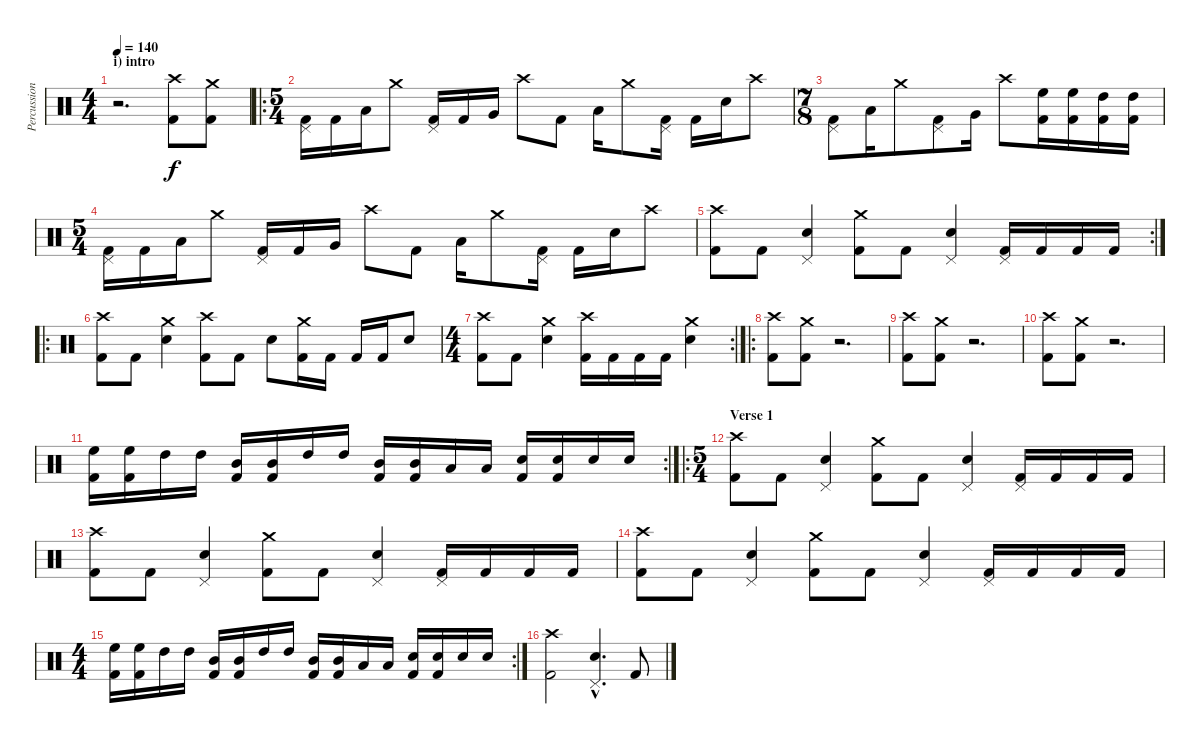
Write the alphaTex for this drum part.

\track ("Percussion" "Percussion") {instrument percussion}
\staff {score}
\articulation defaults
\ts (4 4)
\section ("" "i) intro")
\tempo 140
\clef neutral
\ks c
r.2{d dy f} ("Crash high (hit)" "Kick (hit) 2").8 ("Crash medium (hit)" "Kick (hit) 2").8 |
\ro
\ts (5 4)
("Pedal Hi-Hat (hit)" "Kick (hit) 2").16 "Kick (hit) 2".16 "Low Floor Tom (hit)".16 "Crash medium (hit)".8 ("Pedal Hi-Hat (hit)" "Kick (hit) 2").16 "Kick (hit) 2".16 "Very Low Tom (hit)".16 "Crash high (hit)".8 "Kick (hit) 2".8 "Low Floor Tom (hit)".16 "Crash medium (hit)".8 ("Pedal Hi-Hat (hit)" "Kick (hit) 2").16 "Kick (hit) 2".16 "Electric Snare (hit)".16 "Crash high (hit)".8 |
\ts (7 8)
("Pedal Hi-Hat (hit)" "Kick (hit) 2").8 "Low Floor Tom (hit)".16 "Crash medium (hit)".8 ("Pedal Hi-Hat (hit)" "Kick (hit) 2").8 "Very Low Tom (hit)".16 "Crash high (hit)".8 ("High Floor Tom (hit)" "Kick (hit) 2").16 ("High Floor Tom (hit)" "Kick (hit) 2").16 ("High Tom (hit)" "Kick (hit) 2").16 ("High Tom (hit)" "Kick (hit) 2").16 |
\ts (5 4)
("Pedal Hi-Hat (hit)" "Kick (hit) 2").16 "Kick (hit) 2".16 "Low Floor Tom (hit)".16 "Crash medium (hit)".8 ("Pedal Hi-Hat (hit)" "Kick (hit) 2").16 "Kick (hit) 2".16 "Very Low Tom (hit)".16 "Crash high (hit)".8 "Kick (hit) 2".8 "Low Floor Tom (hit)".16 "Crash medium (hit)".8 ("Pedal Hi-Hat (hit)" "Kick (hit) 2").16 "Kick (hit) 2".16 "Electric Snare (hit)".16 "Crash high (hit)".8 |
\rc 2
("Crash high (hit)" "Kick (hit) 2").8 "Kick (hit) 2".8 ("Pedal Hi-Hat (hit)" "Snare (hit) 2").4 ("Crash medium (hit)" "Kick (hit) 2").8 "Kick (hit) 2".8 ("Pedal Hi-Hat (hit)" "Snare (hit) 2").4 ("Pedal Hi-Hat (hit)" "Kick (hit) 2").16 "Kick (hit) 2".16 "Kick (hit) 2".16 "Kick (hit) 2".16 |
\ro
("Crash high (hit)" "Kick (hit) 2").8 "Kick (hit) 2".8 ("Crash medium (hit)" "Snare (hit) 2").4 ("Crash high (hit)" "Kick (hit) 2").8 "Kick (hit) 2".8 "Snare (hit) 2".8 ("Crash medium (hit)" "Kick (hit) 2").16 "Kick (hit) 2".16 "Kick (hit) 2".16 "Kick (hit) 2".16 "Snare (hit) 2".8 |
\rc 2
\ts (4 4)
("Crash high (hit)" "Kick (hit) 2").8 "Kick (hit) 2".8 ("Crash medium (hit)" "Snare (hit) 2").4 ("Crash high (hit)" "Kick (hit) 2").16 "Kick (hit) 2".16 "Kick (hit) 2".16 "Kick (hit) 2".16 ("Crash medium (hit)" "Snare (hit) 2").4 |
\ro
("Crash high (hit)" "Kick (hit) 2").8 ("Crash medium (hit)" "Kick (hit) 2").8 r.2{d} |
("Crash high (hit)" "Kick (hit) 2").8 ("Crash medium (hit)" "Kick (hit) 2").8 r.2{d} |
("Crash high (hit)" "Kick (hit) 2").8 ("Crash medium (hit)" "Kick (hit) 2").8 r.2{d} |
\rc 2
("High Floor Tom (hit)" "Kick (hit) 2").16 ("High Floor Tom (hit)" "Kick (hit) 2").16 "High Tom (hit)".16 "High Tom (hit)".16 ("Mid Tom (hit)" "Kick (hit) 2").16 ("Mid Tom (hit)" "Kick (hit) 2").16 "High Tom (hit)".16 "High Tom (hit)".16 ("Mid Tom (hit)" "Kick (hit) 2").16 ("Mid Tom (hit)" "Kick (hit) 2").16 "Low Tom (hit)".16 "Low Tom (hit)".16 ("Snare (hit) 2" "Kick (hit) 2").16 ("Snare (hit) 2" "Kick (hit) 2").16 "Electric Snare (hit)".16 "Electric Snare (hit)".16 |
\ro
\ts (5 4)
\section ("" "Verse 1")
("Crash high (hit)" "Kick (hit) 2").8 "Kick (hit) 2".8 ("Pedal Hi-Hat (hit)" "Snare (hit) 2").4 ("Crash medium (hit)" "Kick (hit) 2").8 "Kick (hit) 2".8 ("Pedal Hi-Hat (hit)" "Snare (hit) 2").4 ("Pedal Hi-Hat (hit)" "Kick (hit) 2").16 "Kick (hit) 2".16 "Kick (hit) 2".16 "Kick (hit) 2".16 |
("Crash high (hit)" "Kick (hit) 2").8 "Kick (hit) 2".8 ("Pedal Hi-Hat (hit)" "Snare (hit) 2").4 ("Crash medium (hit)" "Kick (hit) 2").8 "Kick (hit) 2".8 ("Pedal Hi-Hat (hit)" "Snare (hit) 2").4 ("Pedal Hi-Hat (hit)" "Kick (hit) 2").16 "Kick (hit) 2".16 "Kick (hit) 2".16 "Kick (hit) 2".16 |
("Crash high (hit)" "Kick (hit) 2").8 "Kick (hit) 2".8 ("Pedal Hi-Hat (hit)" "Snare (hit) 2").4 ("Crash medium (hit)" "Kick (hit) 2").8 "Kick (hit) 2".8 ("Pedal Hi-Hat (hit)" "Snare (hit) 2").4 ("Pedal Hi-Hat (hit)" "Kick (hit) 2").16 "Kick (hit) 2".16 "Kick (hit) 2".16 "Kick (hit) 2".16 |
\rc 2
\ts (4 4)
("High Floor Tom (hit)" "Kick (hit) 2").16 ("High Floor Tom (hit)" "Kick (hit) 2").16 "High Tom (hit)".16 "High Tom (hit)".16 ("Mid Tom (hit)" "Kick (hit) 2").16 ("Mid Tom (hit)" "Kick (hit) 2").16 "High Tom (hit)".16 "High Tom (hit)".16 ("Mid Tom (hit)" "Kick (hit) 2").16 ("Mid Tom (hit)" "Kick (hit) 2").16 "Low Tom (hit)".16 "Low Tom (hit)".16 ("Snare (hit) 2" "Kick (hit) 2").16 ("Snare (hit) 2" "Kick (hit) 2").16 "Electric Snare (hit)".16 "Electric Snare (hit)".16 |
("Crash high (hit)" "Kick (hit) 2").2 ("Pedal Hi-Hat (hit)"{hac} "Snare (hit) 2"{hac}).4{d} "Kick (hit) 2".8
